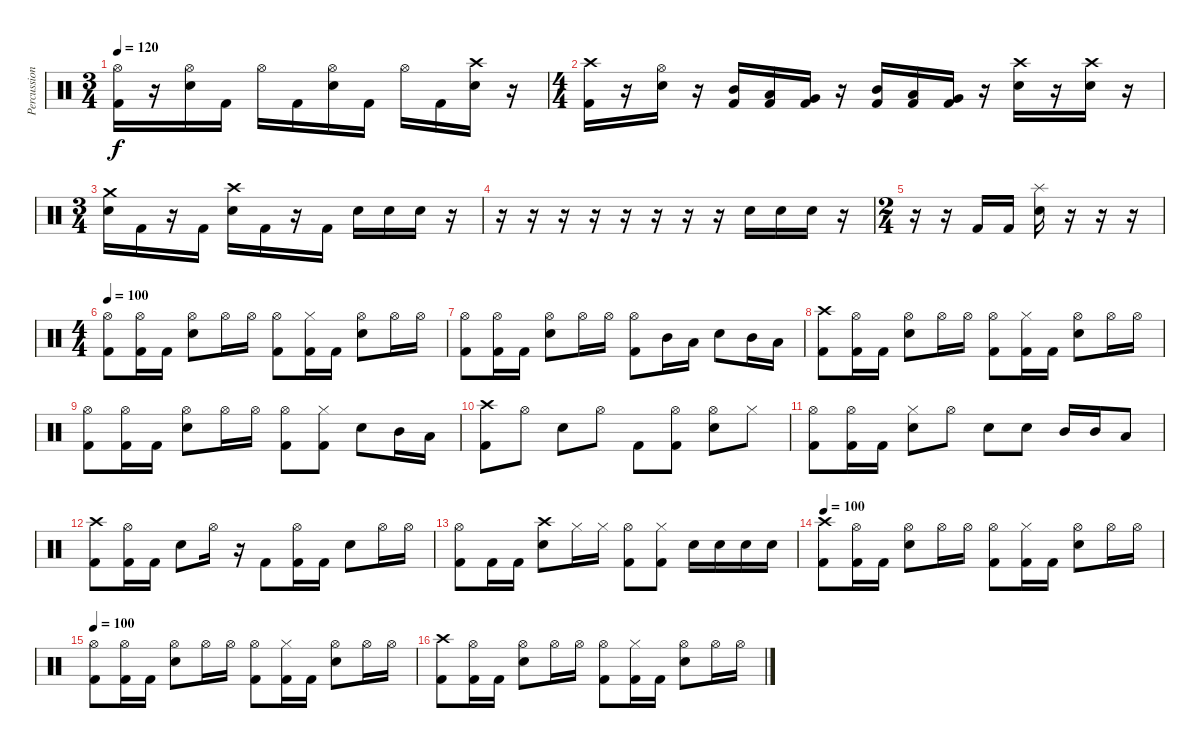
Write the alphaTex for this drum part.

\track ("Percussion" "Percussion") {instrument percussion}
\staff {score}
\articulation defaults
\ts (3 4)
\tempo 120
\clef neutral
\ks c
("Hi-Hat (open)" "Kick (hit) 2").16{dy f} r.16 ("Hi-Hat (open)" "Snare (hit) 2").16 "Kick (hit) 2".16 "Hi-Hat (open)".16 "Kick (hit) 2".16 ("Hi-Hat (open)" "Snare (hit) 2").16 "Kick (hit) 2".16 "Hi-Hat (open)".16 "Kick (hit) 2".16 ("Crash high (hit)" "Snare (hit) 2").16 r.16 |
\ts (4 4)
("Crash high (hit)" "Kick (hit) 2").16 r.16 ("Hi-Hat (open)" "Snare (hit) 2").16 r.16 ("Mid Tom (hit)" "Kick (hit) 2").16 ("Low Tom (hit)" "Kick (hit) 2").16 ("Very Low Tom (hit)" "Kick (hit) 2").16 r.16 ("Mid Tom (hit)" "Kick (hit) 2").16 ("Low Tom (hit)" "Kick (hit) 2").16 ("Very Low Tom (hit)" "Kick (hit) 2").16 r.16 ("Crash high (hit)" "Snare (hit) 2").16 r.16 ("Crash high (hit)" "Snare (hit) 2").16 r.16 |
\ts (3 4)
("Crash medium (hit)" "Snare (hit) 2").16 "Kick (hit) 2".16 r.16 "Kick (hit) 2".16 ("Crash high (hit)" "Snare (hit) 2").16 "Kick (hit) 2".16 r.16 "Kick (hit) 2".16 "Snare (hit) 2".16 "Snare (hit) 2".16 "Snare (hit) 2".16 r.16 |
r.16 r.16 r.16 r.16 r.16 r.16 r.16 r.16 "Snare (hit) 2".16 "Snare (hit) 2".16 "Snare (hit) 2".16 r.16 |
\ts (2 4)
r.16 r.16 "Kick (hit) 2".16 "Kick (hit) 2".16 ("Splash (hit)" "Snare (hit) 2").16 r.16 r.16 r.16 |
\ts (4 4)
\tempo 100
("Hi-Hat (open)" "Kick (hit) 2").8 ("Hi-Hat (open)" "Kick (hit) 2").16 "Kick (hit) 2".16 ("Hi-Hat (open)" "Snare (hit) 2").8 "Hi-Hat (open)".16 "Hi-Hat (open)".16 ("Hi-Hat (open)" "Kick (hit) 2").8 ("Hi-Hat (closed)" "Kick (hit) 2").16 "Kick (hit) 2".16 ("Hi-Hat (open)" "Snare (hit) 2").8 "Hi-Hat (open)".16 "Hi-Hat (open)".16 |
("Hi-Hat (open)" "Kick (hit) 2").8 ("Hi-Hat (open)" "Kick (hit) 2").16 "Kick (hit) 2".16 ("Hi-Hat (open)" "Snare (hit) 2").8 "Hi-Hat (open)".16 "Hi-Hat (open)".16 ("Hi-Hat (open)" "Kick (hit) 2").8 "Mid Tom (hit)".16 "Low Tom (hit)".16 "Snare (hit) 2".8 "Mid Tom (hit)".16 "Low Tom (hit)".16 |
("Crash high (hit)" "Kick (hit) 2").8 ("Hi-Hat (open)" "Kick (hit) 2").16 "Kick (hit) 2".16 ("Hi-Hat (open)" "Snare (hit) 2").8 "Hi-Hat (open)".16 "Hi-Hat (open)".16 ("Hi-Hat (open)" "Kick (hit) 2").8 ("Hi-Hat (closed)" "Kick (hit) 2").16 "Kick (hit) 2".16 ("Hi-Hat (open)" "Snare (hit) 2").8 "Hi-Hat (open)".16 "Hi-Hat (open)".16 |
("Hi-Hat (open)" "Kick (hit) 2").8 ("Hi-Hat (open)" "Kick (hit) 2").16 "Kick (hit) 2".16 ("Hi-Hat (open)" "Snare (hit) 2").8 "Hi-Hat (open)".16 "Hi-Hat (open)".16 ("Hi-Hat (open)" "Kick (hit) 2").8 ("Hi-Hat (closed)" "Kick (hit) 2").8 "Snare (hit) 2".8 "Mid Tom (hit)".16 "Low Tom (hit)".16 |
("Crash high (hit)" "Kick (hit) 2").8 "Hi-Hat (open)".8 "Snare (hit) 2".8 "Hi-Hat (open)".8 "Kick (hit) 2".8 ("Hi-Hat (open)" "Kick (hit) 2").8 ("Hi-Hat (open)" "Snare (hit) 2").8 "Hi-Hat (closed)".8 |
("Hi-Hat (open)" "Kick (hit) 2").8 ("Hi-Hat (open)" "Kick (hit) 2").16 "Kick (hit) 2".16 ("Hi-Hat (closed)" "Snare (hit) 2").8 "Hi-Hat (open)".8 "Snare (hit) 2".8 "Snare (hit) 2".8 "Mid Tom (hit)".16 "Mid Tom (hit)".16 "Low Tom (hit)".8 |
("Crash high (hit)" "Kick (hit) 2").8 ("Hi-Hat (open)" "Kick (hit) 2").16 "Kick (hit) 2".16 "Snare (hit) 2".8 "Hi-Hat (open)".16 r.16 "Kick (hit) 2".8 ("Hi-Hat (open)" "Kick (hit) 2").16 "Kick (hit) 2".16 "Snare (hit) 2".8 "Hi-Hat (open)".16 "Hi-Hat (open)".16 |
("Hi-Hat (open)" "Kick (hit) 2").8 "Kick (hit) 2".16 "Kick (hit) 2".16 ("Crash high (hit)" "Snare (hit) 2").8 "Hi-Hat (closed)".16 "Hi-Hat (closed)".16 ("Hi-Hat (open)" "Kick (hit) 2").8 ("Hi-Hat (closed)" "Kick (hit) 2").8 "Snare (hit) 2".16 "Snare (hit) 2".16 "Snare (hit) 2".16 "Snare (hit) 2".16 |
\tempo 100
("Crash high (hit)" "Kick (hit) 2").8 ("Hi-Hat (open)" "Kick (hit) 2").16 "Kick (hit) 2".16 ("Hi-Hat (open)" "Snare (hit) 2").8 "Hi-Hat (open)".16 "Hi-Hat (open)".16 ("Hi-Hat (open)" "Kick (hit) 2").8 ("Hi-Hat (closed)" "Kick (hit) 2").16 "Kick (hit) 2".16 ("Hi-Hat (open)" "Snare (hit) 2").8 "Hi-Hat (open)".16 "Hi-Hat (open)".16 |
\tempo 100
("Hi-Hat (open)" "Kick (hit) 2").8 ("Hi-Hat (open)" "Kick (hit) 2").16 "Kick (hit) 2".16 ("Hi-Hat (open)" "Snare (hit) 2").8 "Hi-Hat (open)".16 "Hi-Hat (open)".16 ("Hi-Hat (open)" "Kick (hit) 2").8 ("Hi-Hat (closed)" "Kick (hit) 2").16 "Kick (hit) 2".16 ("Hi-Hat (open)" "Snare (hit) 2").8 "Hi-Hat (open)".16 "Hi-Hat (open)".16 |
("Crash high (hit)" "Kick (hit) 2").8 ("Hi-Hat (open)" "Kick (hit) 2").16 "Kick (hit) 2".16 ("Hi-Hat (open)" "Snare (hit) 2").8 "Hi-Hat (open)".16 "Hi-Hat (open)".16 ("Hi-Hat (open)" "Kick (hit) 2").8 ("Hi-Hat (closed)" "Kick (hit) 2").16 "Kick (hit) 2".16 ("Hi-Hat (open)" "Snare (hit) 2").8 "Hi-Hat (open)".16 "Hi-Hat (open)".16
